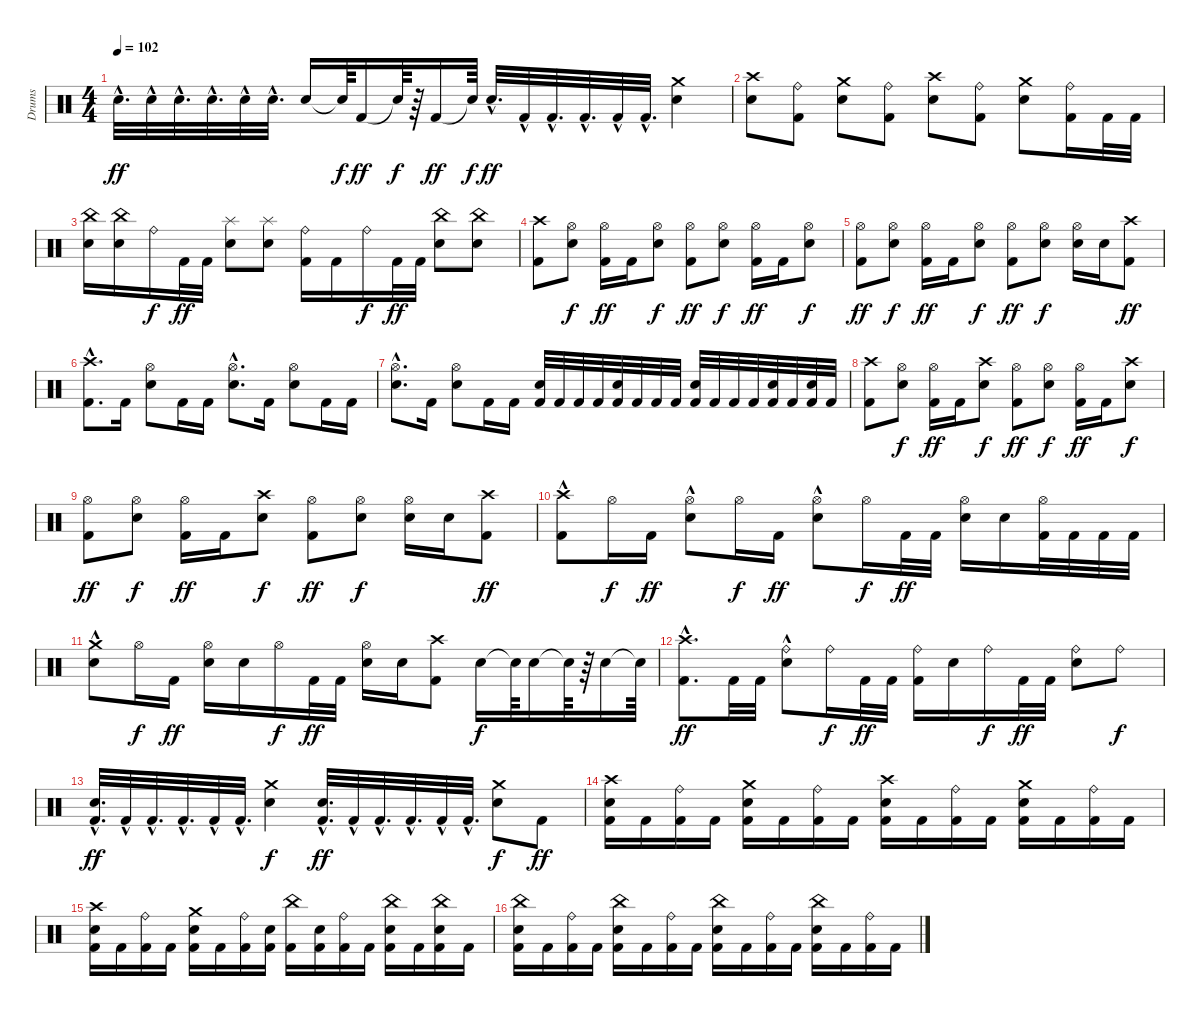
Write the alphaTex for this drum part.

\track ("Drums" "Drums") {instrument percussion}
\staff {score}
\articulation defaults
\ts (4 4)
\tempo 102
\clef neutral
\ks c "Electric Snare (hit)"{hac}.32{d dy ff} "Electric Snare (hit)"{hac}.32 "Electric Snare (hit)"{hac}.32{d} "Electric Snare (hit)"{hac}.32{d} "Electric Snare (hit)"{hac}.32 "Electric Snare (hit)"{hac}.32{d} "Electric Snare (hit)".16 "Snare (hit)"{t}.64{dy f} "Kick (hit) 2".16{dy ff} "Snare (hit)"{t}.64{dy f}
r.64 "Kick (hit) 2".16{dy ff} "Snare (hit)"{t}.64{dy f} "Electric Snare (hit)"{hac}.32{d dy ff} "Kick (hit) 2"{hac}.32 "Kick (hit) 2"{hac}.32{d} "Kick (hit) 2"{hac}.32{d} "Kick (hit) 2"{hac}.32 "Kick (hit) 2"{hac}.32{d} ("Crash medium (hit)" "Electric Snare (hit)").4 |
("Crash high (hit)" "Electric Snare (hit)").8{volume 11} ("Ride (bell)" "Kick (hit) 2").8 ("Crash medium (hit)" "Electric Snare (hit)").8 ("Ride (bell)" "Kick (hit) 2").8 ("Crash high (hit)" "Electric Snare (hit)").8 ("Ride (bell)" "Kick (hit) 2").8 ("Crash medium (hit)" "Electric Snare (hit)").8 ("Ride (bell)" "Kick (hit) 2").16 "Kick (hit) 2".32 "Kick (hit) 2".32 |
("China (hit)" "Electric Snare (hit)").16 ("China (hit)" "Electric Snare (hit)").16 "Ride (bell)".16{dy f} "Kick (hit) 2".32{dy ff} "Kick (hit) 2".32 ("Splash (hit)" "Electric Snare (hit)").8 ("Splash (hit)" "Electric Snare (hit)").8 ("Ride (bell)" "Kick (hit) 2").16 "Kick (hit) 2".16 "Ride (bell)".16{dy f} "Kick (hit) 2".32{dy ff} "Kick (hit) 2".32 ("China (hit)" "Electric Snare (hit)").8 ("China (hit)" "Electric Snare (hit)").8 |
("Crash high (hit)" "Kick (hit) 2").8 ("Hi-Hat (open)" "Electric Snare (hit)").8{dy f} ("Hi-Hat (open)" "Kick (hit) 2").16{dy ff} "Kick (hit) 2".16 ("Hi-Hat (open)" "Electric Snare (hit)").8{dy f} ("Hi-Hat (open)" "Kick (hit) 2").8{dy ff} ("Hi-Hat (open)" "Electric Snare (hit)").8{dy f} ("Hi-Hat (open)" "Kick (hit) 2").16{dy ff} "Kick (hit) 2".16 ("Hi-Hat (open)" "Electric Snare (hit)").8{dy f} |
("Hi-Hat (open)" "Kick (hit) 2").8{dy ff} ("Hi-Hat (open)" "Electric Snare (hit)").8{dy f} ("Hi-Hat (open)" "Kick (hit) 2").16{dy ff} "Kick (hit) 2".16 ("Hi-Hat (open)" "Electric Snare (hit)").8{dy f} ("Hi-Hat (open)" "Kick (hit) 2").8{dy ff} ("Hi-Hat (open)" "Electric Snare (hit)").8{dy f} ("Hi-Hat (open)" "Electric Snare (hit)").16 "Electric Snare (hit)".16 ("Crash high (hit)" "Kick (hit) 2").8{dy ff} |
("Crash high (hit)" "Kick (hit) 2"{hac}).8{d} "Kick (hit) 2".16 ("Hi-Hat (open)" "Electric Snare (hit)").8 "Kick (hit) 2".16 "Kick (hit) 2".16 ("Hi-Hat (open)" "Electric Snare (hit)"{hac}).8{d} "Kick (hit) 2".16 ("Hi-Hat (open)" "Electric Snare (hit)").8 "Kick (hit) 2".16 "Kick (hit) 2".16 |
("Hi-Hat (open)" "Electric Snare (hit)"{hac}).8{d} "Kick (hit) 2".16 ("Hi-Hat (open)" "Electric Snare (hit)").8 "Kick (hit) 2".16 "Kick (hit) 2".16 ("Electric Snare (hit)" "Kick (hit) 2").32 "Kick (hit) 2".32 "Kick (hit) 2".32 "Kick (hit) 2".32 ("Electric Snare (hit)" "Kick (hit) 2").32 "Kick (hit) 2".32 "Kick (hit) 2".32 "Kick (hit) 2".32 ("Electric Snare (hit)" "Kick (hit) 2").32 "Kick (hit) 2".32 "Kick (hit) 2".32 "Kick (hit) 2".32 ("Electric Snare (hit)" "Kick (hit) 2").32 "Kick (hit) 2".32 ("Electric Snare (hit)" "Kick (hit) 2").32 "Kick (hit) 2".32 |
("Crash high (hit)" "Kick (hit) 2").8 ("Hi-Hat (open)" "Electric Snare (hit)").8{dy f} ("Hi-Hat (open)" "Kick (hit) 2").16{dy ff} "Kick (hit) 2".16 ("Electric Snare (hit)" "Crash high (hit)").8{dy f} ("Hi-Hat (open)" "Kick (hit) 2").8{dy ff} ("Hi-Hat (open)" "Electric Snare (hit)").8{dy f} ("Hi-Hat (open)" "Kick (hit) 2").16{dy ff} "Kick (hit) 2".16 ("Electric Snare (hit)" "Crash high (hit)").8{dy f} |
("Hi-Hat (open)" "Kick (hit) 2").8{dy ff} ("Hi-Hat (open)" "Electric Snare (hit)").8{dy f} ("Hi-Hat (open)" "Kick (hit) 2").16{dy ff} "Kick (hit) 2".16 ("Electric Snare (hit)" "Crash high (hit)").8{dy f} ("Hi-Hat (open)" "Kick (hit) 2").8{dy ff} ("Hi-Hat (open)" "Electric Snare (hit)").8{dy f} ("Hi-Hat (open)" "Electric Snare (hit)").16 "Electric Snare (hit)".16 ("Crash high (hit)" "Kick (hit) 2").8{dy ff} |
("Crash high (hit)" "Kick (hit) 2"{hac}).8 "Hi-Hat (open)".16{dy f} "Kick (hit) 2".16{dy ff} ("Hi-Hat (open)" "Electric Snare (hit)"{hac}).8 "Hi-Hat (open)".16{dy f} "Kick (hit) 2".16{dy ff} ("Hi-Hat (open)" "Electric Snare (hit)"{hac}).8 "Hi-Hat (open)".16{dy f} "Kick (hit) 2".32{dy ff} "Kick (hit) 2".32 ("Hi-Hat (open)" "Electric Snare (hit)").16 "Electric Snare (hit)".16 ("Hi-Hat (open)" "Kick (hit) 2").32 "Kick (hit) 2".32 "Kick (hit) 2".32 "Kick (hit) 2".32 |
("Crash medium (hit)" "Electric Snare (hit)"{hac}).8 "Hi-Hat (open)".16{dy f} "Kick (hit) 2".16{dy ff} ("Hi-Hat (open)" "Electric Snare (hit)").16 "Electric Snare (hit)".16 "Hi-Hat (open)".16{dy f} "Kick (hit) 2".32{dy ff} "Kick (hit) 2".32 ("Hi-Hat (open)" "Electric Snare (hit)").16 "Electric Snare (hit)".16 ("Crash high (hit)" "Kick (hit) 2").8 "Electric Snare (hit)".16{dy f} "Snare (hit)"{t}.64 "Electric Snare (hit)".16 "Snare (hit)"{t}.64 r.64 "Electric Snare (hit)".16 "Snare (hit)"{t}.64 |
("Crash high (hit)" "Kick (hit) 2"{hac}).8{d dy ff} "Kick (hit) 2".32 "Kick (hit) 2".32 ("Ride (bell)" "Electric Snare (hit)"{hac}).8 "Ride (bell)".16{dy f} "Kick (hit) 2".32{dy ff} "Kick (hit) 2".32 ("Ride (bell)" "Kick (hit) 2").16 "Electric Snare (hit)".16 "Ride (bell)".16{dy f} "Kick (hit) 2".32{dy ff} "Kick (hit) 2".32 ("Ride (bell)" "Electric Snare (hit)").8 "Ride (bell)".8{dy f} |
("Electric Snare (hit)"{hac} "Kick (hit) 2"{hac}).32{d dy ff} "Kick (hit) 2"{hac}.32 "Kick (hit) 2"{hac}.32{d} "Kick (hit) 2"{hac}.32{d} "Kick (hit) 2"{hac}.32 "Kick (hit) 2"{hac}.32{d} ("Crash medium (hit)" "Electric Snare (hit)").4{dy f} ("Electric Snare (hit)"{hac} "Kick (hit) 2"{hac}).32{d dy ff} "Kick (hit) 2"{hac}.32 "Kick (hit) 2"{hac}.32{d} "Kick (hit) 2"{hac}.32{d} "Kick (hit) 2"{hac}.32 "Kick (hit) 2"{hac}.32{d} ("Electric Snare (hit)" "Crash medium (hit)").8{dy f} "Kick (hit) 2".8{dy ff} |
("Electric Snare (hit)" "Crash high (hit)" "Kick (hit) 2").16 "Kick (hit) 2".16 ("Ride (bell)" "Kick (hit) 2").16 "Kick (hit) 2".16 ("Electric Snare (hit)" "Crash medium (hit)" "Kick (hit) 2").16 "Kick (hit) 2".16 ("Ride (bell)" "Kick (hit) 2").16 "Kick (hit) 2".16 ("Electric Snare (hit)" "Crash high (hit)" "Kick (hit) 2").16 "Kick (hit) 2".16 ("Ride (bell)" "Kick (hit) 2").16 "Kick (hit) 2".16 ("Electric Snare (hit)" "Crash medium (hit)" "Kick (hit) 2").16 "Kick (hit) 2".16 ("Ride (bell)" "Kick (hit) 2").16 "Kick (hit) 2".16 |
("Electric Snare (hit)" "Crash high (hit)" "Kick (hit) 2").16 "Kick (hit) 2".16 ("Ride (bell)" "Kick (hit) 2").16 "Kick (hit) 2".16 ("Electric Snare (hit)" "Crash medium (hit)" "Kick (hit) 2").16 "Kick (hit) 2".16 ("Ride (bell)" "Kick (hit) 2").16 ("Electric Snare (hit)" "Kick (hit) 2").16 ("China (hit)" "Kick (hit) 2").16 ("Electric Snare (hit)" "Kick (hit) 2").16 ("Ride (bell)" "Kick (hit) 2").16 "Kick (hit) 2".16 ("China (hit)" "Electric Snare (hit)" "Kick (hit) 2").16 "Kick (hit) 2".16 ("Electric Snare (hit)" "China (hit)" "Kick (hit) 2").16 "Kick (hit) 2".16 |
("Electric Snare (hit)" "China (hit)" "Kick (hit) 2").16 "Kick (hit) 2".16 ("Ride (bell)" "Kick (hit) 2").16 "Kick (hit) 2".16 ("Electric Snare (hit)" "China (hit)" "Kick (hit) 2").16 "Kick (hit) 2".16 ("Ride (bell)" "Kick (hit) 2").16 "Kick (hit) 2".16 ("Electric Snare (hit)" "China (hit)" "Kick (hit) 2").16 "Kick (hit) 2".16 ("Ride (bell)" "Kick (hit) 2").16 "Kick (hit) 2".16 ("Electric Snare (hit)" "China (hit)" "Kick (hit) 2").16 "Kick (hit) 2".16 ("Ride (bell)" "Kick (hit) 2").16 "Kick (hit) 2".16
